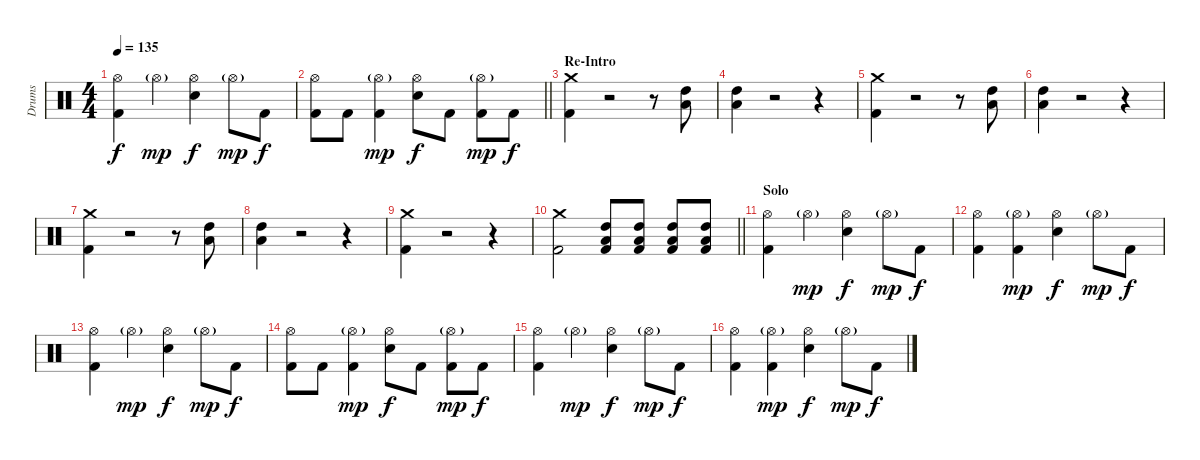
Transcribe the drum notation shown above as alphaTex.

\track ("Drums" "Drums") {instrument percussion}
\staff {score}
\articulation defaults
\ts (4 4)
\tempo 135
\clef neutral
\ks c
("Hi-Hat (open)" "Kick (hit) 2").4{dy f} "Hi-Hat (open)"{g}.4{dy mp} ("Hi-Hat (open)" "Electric Snare (hit)").4{dy f} "Hi-Hat (open)"{g}.8{dy mp} "Kick (hit) 2".8{dy f} |
\barLineRight lightlight
("Hi-Hat (open)" "Kick (hit) 2").8 "Kick (hit) 2".8 ("Hi-Hat (open)"{g} "Kick (hit) 2").4{dy mp} ("Hi-Hat (open)" "Electric Snare (hit)").8{dy f} "Kick (hit) 2".8 ("Hi-Hat (open)"{g} "Kick (hit) 2").8{dy mp} "Kick (hit) 2".8{dy f} |
\section ("" "Re-Intro")
("Crash medium (hit)" "Kick (hit) 2").4 r.2 r.8 ("High Tom (hit)" "Low Tom (hit)").8 |
("High Tom (hit)" "Low Tom (hit)").4 r.2 r.4 |
("Crash medium (hit)" "Kick (hit) 2").4 r.2 r.8 ("High Tom (hit)" "Low Tom (hit)").8 |
("High Tom (hit)" "Low Tom (hit)").4 r.2 r.4 |
("Crash medium (hit)" "Kick (hit) 2").4 r.2 r.8 ("High Tom (hit)" "Low Tom (hit)").8 |
("High Tom (hit)" "Low Tom (hit)").4 r.2 r.4 |
("Crash medium (hit)" "Kick (hit) 2").4 r.2 r.4 |
\barLineRight lightlight
("Crash medium (hit)" "Kick (hit) 2").2 ("High Tom (hit)" "Low Tom (hit)" "Kick (hit) 2").8 ("High Tom (hit)" "Low Tom (hit)" "Kick (hit) 2").8 ("High Tom (hit)" "Low Tom (hit)" "Kick (hit) 2").8 ("High Tom (hit)" "Low Tom (hit)" "Kick (hit) 2").8 |
\section ("" "Solo")
("Hi-Hat (open)" "Kick (hit) 2").4 "Hi-Hat (open)"{g}.4{dy mp} ("Hi-Hat (open)" "Electric Snare (hit)").4{dy f} "Hi-Hat (open)"{g}.8{dy mp} "Kick (hit) 2".8{dy f} |
("Hi-Hat (open)" "Kick (hit) 2").4 ("Hi-Hat (open)"{g} "Kick (hit) 2").4{dy mp} ("Hi-Hat (open)" "Electric Snare (hit)").4{dy f} "Hi-Hat (open)"{g}.8{dy mp} "Kick (hit) 2".8{dy f} |
("Hi-Hat (open)" "Kick (hit) 2").4 "Hi-Hat (open)"{g}.4{dy mp} ("Hi-Hat (open)" "Electric Snare (hit)").4{dy f} "Hi-Hat (open)"{g}.8{dy mp} "Kick (hit) 2".8{dy f} |
("Hi-Hat (open)" "Kick (hit) 2").8 "Kick (hit) 2".8 ("Hi-Hat (open)"{g} "Kick (hit) 2").4{dy mp} ("Hi-Hat (open)" "Electric Snare (hit)").8{dy f} "Kick (hit) 2".8 ("Hi-Hat (open)"{g} "Kick (hit) 2").8{dy mp} "Kick (hit) 2".8{dy f} |
("Hi-Hat (open)" "Kick (hit) 2").4 "Hi-Hat (open)"{g}.4{dy mp} ("Hi-Hat (open)" "Electric Snare (hit)").4{dy f} "Hi-Hat (open)"{g}.8{dy mp} "Kick (hit) 2".8{dy f} |
("Hi-Hat (open)" "Kick (hit) 2").4 ("Hi-Hat (open)"{g} "Kick (hit) 2").4{dy mp} ("Hi-Hat (open)" "Electric Snare (hit)").4{dy f} "Hi-Hat (open)"{g}.8{dy mp} "Kick (hit) 2".8{dy f}
